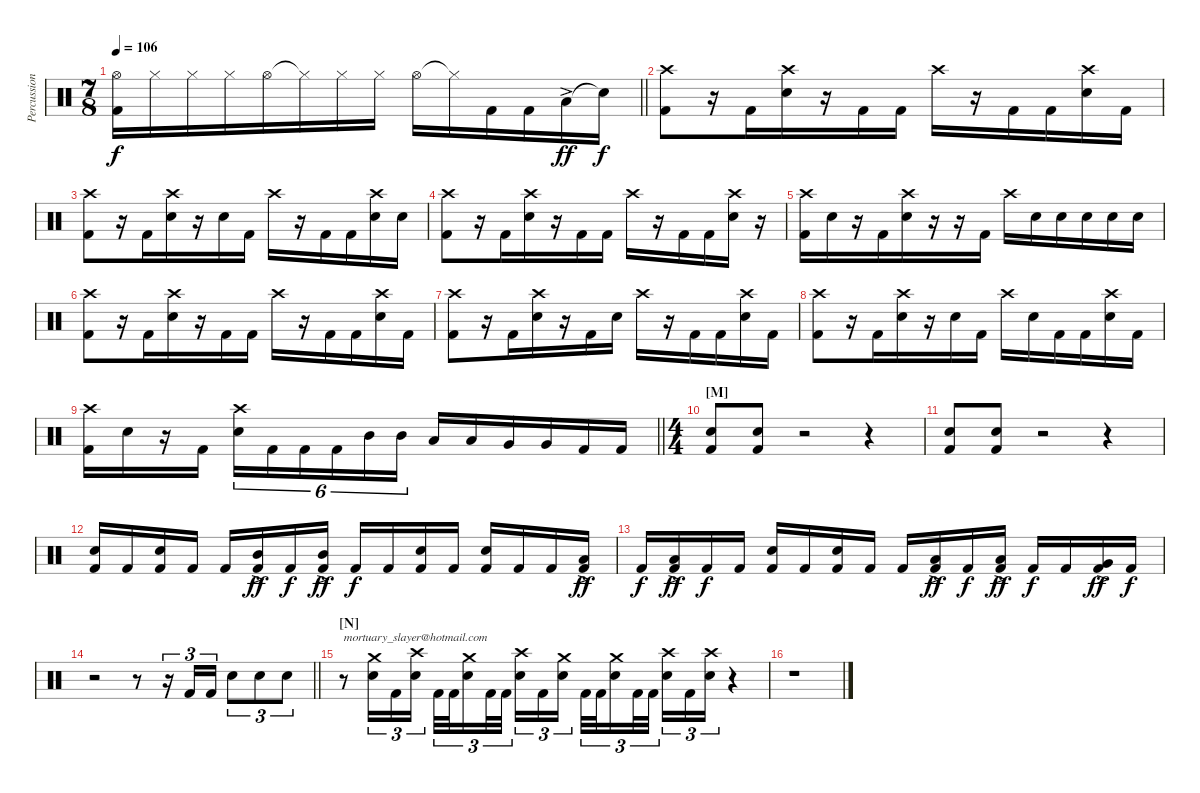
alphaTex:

\track ("Percussions" "Percussion") {instrument percussion}
\staff {score}
\articulation defaults
\ts (7 8)
\tempo 106
\clef neutral
\barLineRight lightlight
\ks c
("Hi-Hat (open)" "Kick (hit) 2").16{dy f} "Hi-Hat (closed)".16 "Hi-Hat (closed)".16 "Hi-Hat (closed)".16 "Hi-Hat (open)".16 "Hi-Hat (closed)"{t}.16 "Hi-Hat (closed)".16 "Hi-Hat (closed)".16 "Hi-Hat (open)".16 "Hi-Hat (closed)"{t}.16 "Kick (hit) 2".16 "Kick (hit) 2".16 "Low Tom (hit)"{ac}.16{dy ff} "Snare (hit)"{t}.16{dy f} |
\section ("" "")
("Crash high (hit)" "Kick (hit) 2").8 r.16 "Kick (hit) 2".16 ("Crash high (hit)" "Electric Snare (hit)").16 r.16 "Kick (hit) 2".16 "Kick (hit) 2".16 "Crash high (hit)".16 r.16 "Kick (hit) 2".16 "Kick (hit) 2".16 ("Crash high (hit)" "Electric Snare (hit)").16 "Kick (hit) 2".16 |
("Crash high (hit)" "Kick (hit) 2").8 r.16 "Kick (hit) 2".16 ("Crash high (hit)" "Electric Snare (hit)").16 r.16 "Electric Snare (hit)".16 "Kick (hit) 2".16 "Crash high (hit)".16 r.16 "Kick (hit) 2".16 "Kick (hit) 2".16 ("Crash high (hit)" "Electric Snare (hit)").16 "Electric Snare (hit)".16 |
("Crash high (hit)" "Kick (hit) 2").8 r.16 "Kick (hit) 2".16 ("Crash high (hit)" "Electric Snare (hit)").16 r.16 "Kick (hit) 2".16 "Kick (hit) 2".16 "Crash high (hit)".16 r.16 "Kick (hit) 2".16 "Kick (hit) 2".16 ("Crash high (hit)" "Electric Snare (hit)").16 r.16 |
("Crash high (hit)" "Kick (hit) 2").16 "Electric Snare (hit)".16 r.16 "Kick (hit) 2".16 ("Crash high (hit)" "Electric Snare (hit)").16 r.16 r.16 "Kick (hit) 2".16 "Crash high (hit)".16 "Electric Snare (hit)".16 "Electric Snare (hit)".16 "Electric Snare (hit)".16 "Electric Snare (hit)".16 "Electric Snare (hit)".16 |
("Crash high (hit)" "Kick (hit) 2").8 r.16 "Kick (hit) 2".16 ("Crash high (hit)" "Electric Snare (hit)").16 r.16 "Kick (hit) 2".16 "Kick (hit) 2".16 "Crash high (hit)".16 r.16 "Kick (hit) 2".16 "Kick (hit) 2".16 ("Crash high (hit)" "Electric Snare (hit)").16 "Kick (hit) 2".16 |
("Crash high (hit)" "Kick (hit) 2").8 r.16 "Kick (hit) 2".16 ("Crash high (hit)" "Electric Snare (hit)").16 r.16 "Kick (hit) 2".16 "Electric Snare (hit)".16 "Crash high (hit)".16 r.16 "Kick (hit) 2".16 "Kick (hit) 2".16 ("Crash high (hit)" "Electric Snare (hit)").16 "Kick (hit) 2".16 |
("Crash high (hit)" "Kick (hit) 2").8 r.16 "Kick (hit) 2".16 ("Crash high (hit)" "Electric Snare (hit)").16 r.16 "Electric Snare (hit)".16 "Kick (hit) 2".16 "Crash high (hit)".16 "Electric Snare (hit)".16 "Kick (hit) 2".16 "Kick (hit) 2".16 ("Crash high (hit)" "Electric Snare (hit)").16 "Kick (hit) 2".16 |
\barLineRight lightlight
("Crash high (hit)" "Kick (hit) 2").16 "Electric Snare (hit)".16 r.16 "Kick (hit) 2".16 ("Crash high (hit)" "Electric Snare (hit)").16{tu (6 4)} "Kick (hit) 2".16{tu (6 4)} "Kick (hit) 2".16{tu (6 4)} "Kick (hit) 2".16{tu (6 4)} "Mid Tom (hit)".16{tu (6 4)} "Mid Tom (hit)".16{tu (6 4)} "Low Tom (hit)".16 "Low Tom (hit)".16 "Very Low Tom (hit)".16 "Very Low Tom (hit)".16 "Kick (hit) 2".16 "Kick (hit) 2".16 |
\ts (4 4)
\section ("" "[M]")
("Electric Snare (hit)" "Kick (hit) 2").8 ("Electric Snare (hit)" "Kick (hit) 2").8 r.2 r.4 |
("Electric Snare (hit)" "Kick (hit) 2").8 ("Electric Snare (hit)" "Kick (hit) 2").8 r.2 r.4 |
("Electric Snare (hit)" "Kick (hit) 2").16 "Kick (hit) 2".16 ("Electric Snare (hit)" "Kick (hit) 2").16 "Kick (hit) 2".16 "Kick (hit) 2".16 ("Mid Tom (hit)"{ac} "Kick (hit) 2").16{dy ff} "Kick (hit) 2".16{dy f} ("Mid Tom (hit)"{ac} "Kick (hit) 2").16{dy ff} "Kick (hit) 2".16{dy f} "Kick (hit) 2".16 ("Electric Snare (hit)" "Kick (hit) 2").16 "Kick (hit) 2".16 ("Electric Snare (hit)" "Kick (hit) 2").16 "Kick (hit) 2".16 "Kick (hit) 2".16 ("Low Tom (hit)"{ac} "Kick (hit) 2").16{dy ff} |
"Kick (hit) 2".16{dy f} ("Low Tom (hit)"{ac} "Kick (hit) 2").16{dy ff} "Kick (hit) 2".16{dy f} "Kick (hit) 2".16 ("Electric Snare (hit)" "Kick (hit) 2").16 "Kick (hit) 2".16 ("Electric Snare (hit)" "Kick (hit) 2").16 "Kick (hit) 2".16 "Kick (hit) 2".16 ("Low Tom (hit)"{ac} "Kick (hit) 2").16{dy ff} "Kick (hit) 2".16{dy f} ("Low Tom (hit)"{ac} "Kick (hit) 2").16{dy ff} "Kick (hit) 2".16{dy f} "Kick (hit) 2".16 ("Very Low Tom (hit)"{ac} "Kick (hit) 2").16{dy ff} "Kick (hit) 2".16{dy f} |
\barLineRight lightlight
r.2 r.8 r.16{tu (3 2)} "Kick (hit) 2".16{tu (3 2)} "Kick (hit) 2".16{tu (3 2)} "Electric Snare (hit)".8{tu (3 2)} "Electric Snare (hit)".8{tu (3 2)} "Electric Snare (hit)".8{tu (3 2)} |
\section ("" "[N]")
r.8{txt "mortuary_slayer@hotmail.com"} ("Crash medium (hit)" "Electric Snare (hit)").16{tu (3 2)} "Kick (hit) 2".16{tu (3 2)} ("Crash high (hit)" "Electric Snare (hit)").16{tu (3 2)} "Kick (hit) 2".32{tu (3 2)} "Kick (hit) 2".32{tu (3 2)} ("Crash medium (hit)" "Electric Snare (hit)").16{tu (3 2)} "Kick (hit) 2".32{tu (3 2)} "Kick (hit) 2".32{tu (3 2) beam splitsecondary} ("Crash high (hit)" "Electric Snare (hit)").16{tu (3 2)} "Kick (hit) 2".16{tu (3 2)} ("Crash medium (hit)" "Electric Snare (hit)").16{tu (3 2)} "Kick (hit) 2".32{tu (3 2)} "Kick (hit) 2".32{tu (3 2)} ("Crash medium (hit)" "Electric Snare (hit)").16{tu (3 2)} "Kick (hit) 2".32{tu (3 2)} "Kick (hit) 2".32{tu (3 2) beam splitsecondary} ("Crash high (hit)" "Electric Snare (hit)").16{tu (3 2)} "Kick (hit) 2".16{tu (3 2)} ("Crash high (hit)" "Electric Snare (hit)").16{tu (3 2)} r.4 |
r.1
